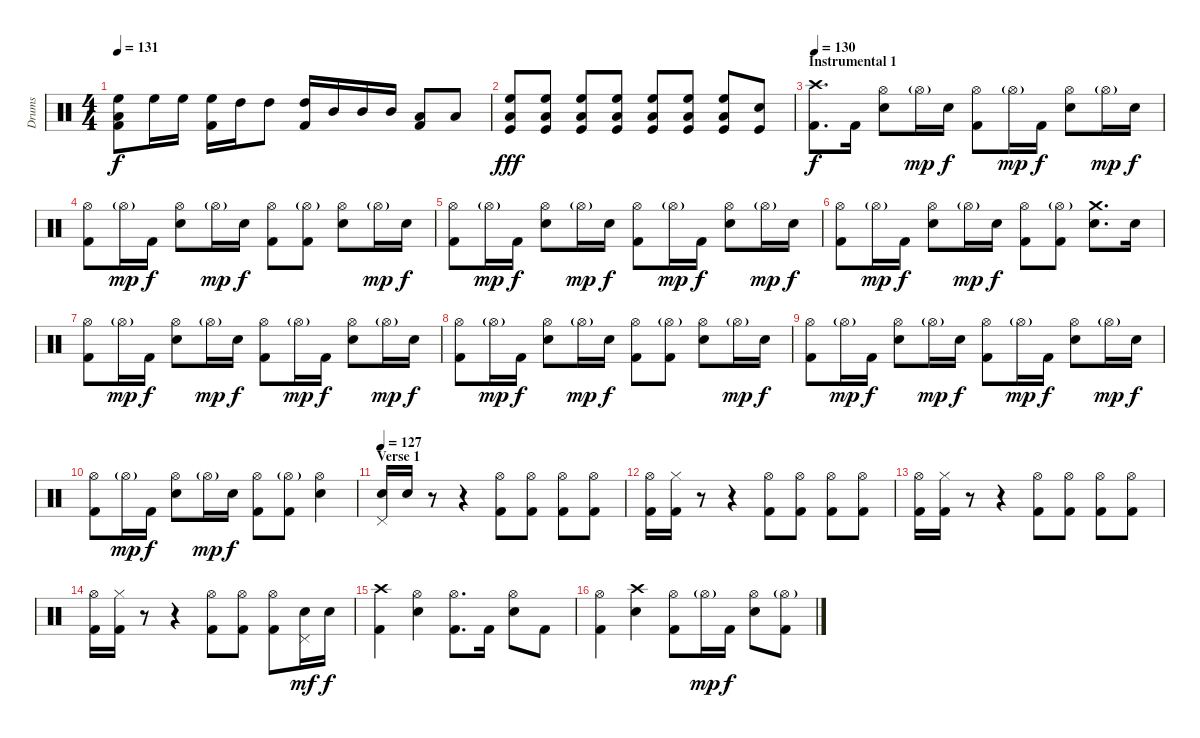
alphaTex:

\track ("Drums" "Drums") {instrument percussion}
\staff {score}
\articulation defaults
\ts (4 4)
\tempo 131
\clef neutral
\ks c
("High Floor Tom (hit)" "Low Tom (hit)" "Kick (hit) 2").8{dy f} "High Floor Tom (hit)".16 "High Floor Tom (hit)".16 ("High Floor Tom (hit)" "Kick (hit) 2").16 "High Tom (hit)".16 "High Tom (hit)".8 ("High Tom (hit)" "Kick (hit) 2").16 "Mid Tom (hit)".16 "Mid Tom (hit)".16 "Mid Tom (hit)".16 ("Low Tom (hit)" "Kick (hit) 2").8 "Low Tom (hit)".8 |
("High Floor Tom (hit)" "Low Tom (hit)" "Kick (hit)").8{dy fff} ("High Floor Tom (hit)" "Low Tom (hit)" "Kick (hit)").8 ("High Floor Tom (hit)" "Low Tom (hit)" "Kick (hit)").8 ("High Floor Tom (hit)" "Low Tom (hit)" "Kick (hit)").8 ("High Floor Tom (hit)" "Low Tom (hit)" "Kick (hit)").8 ("High Floor Tom (hit)" "Low Tom (hit)" "Kick (hit)").8 ("High Floor Tom (hit)" "Low Tom (hit)" "Kick (hit)").8 ("Snare (hit) 2" "Kick (hit)").8 |
\section ("" "Instrumental 1")
\tempo 130
("Crash high (hit)" "Kick (hit) 2").8{d dy f} "Kick (hit) 2".16 ("Hi-Hat (open)" "Snare (hit) 2").8 "Hi-Hat (open)"{g}.16{dy mp} "Snare (hit) 2".16{dy f} ("Hi-Hat (open)" "Kick (hit) 2").8 "Hi-Hat (open)"{g}.16{dy mp} "Kick (hit) 2".16{dy f} ("Hi-Hat (open)" "Snare (hit) 2").8 "Hi-Hat (open)"{g}.16{dy mp} "Snare (hit) 2".16{dy f} |
("Hi-Hat (open)" "Kick (hit) 2").8 "Hi-Hat (open)"{g}.16{dy mp} "Kick (hit) 2".16{dy f} ("Hi-Hat (open)" "Snare (hit) 2").8 "Hi-Hat (open)"{g}.16{dy mp} "Snare (hit) 2".16{dy f} ("Hi-Hat (open)" "Kick (hit) 2").8 ("Hi-Hat (open)"{g} "Kick (hit) 2").8 ("Hi-Hat (open)" "Snare (hit) 2").8 "Hi-Hat (open)"{g}.16{dy mp} "Snare (hit) 2".16{dy f} |
("Hi-Hat (open)" "Kick (hit) 2").8 "Hi-Hat (open)"{g}.16{dy mp} "Kick (hit) 2".16{dy f} ("Hi-Hat (open)" "Snare (hit) 2").8 "Hi-Hat (open)"{g}.16{dy mp} "Snare (hit) 2".16{dy f} ("Hi-Hat (open)" "Kick (hit) 2").8 "Hi-Hat (open)"{g}.16{dy mp} "Kick (hit) 2".16{dy f} ("Hi-Hat (open)" "Snare (hit) 2").8 "Hi-Hat (open)"{g}.16{dy mp} "Snare (hit) 2".16{dy f} |
("Hi-Hat (open)" "Kick (hit) 2").8 "Hi-Hat (open)"{g}.16{dy mp} "Kick (hit) 2".16{dy f} ("Hi-Hat (open)" "Snare (hit) 2").8 "Hi-Hat (open)"{g}.16{dy mp} "Snare (hit) 2".16{dy f} ("Hi-Hat (open)" "Kick (hit) 2").8 ("Hi-Hat (open)"{g} "Kick (hit) 2").8 ("Crash medium (hit)" "Snare (hit) 2").8{d} "Snare (hit) 2".16 |
("Hi-Hat (open)" "Kick (hit) 2").8 "Hi-Hat (open)"{g}.16{dy mp} "Kick (hit) 2".16{dy f} ("Hi-Hat (open)" "Snare (hit) 2").8 "Hi-Hat (open)"{g}.16{dy mp} "Snare (hit) 2".16{dy f} ("Hi-Hat (open)" "Kick (hit) 2").8 "Hi-Hat (open)"{g}.16{dy mp} "Kick (hit) 2".16{dy f} ("Hi-Hat (open)" "Snare (hit) 2").8 "Hi-Hat (open)"{g}.16{dy mp} "Snare (hit) 2".16{dy f} |
("Hi-Hat (open)" "Kick (hit) 2").8 "Hi-Hat (open)"{g}.16{dy mp} "Kick (hit) 2".16{dy f} ("Hi-Hat (open)" "Snare (hit) 2").8 "Hi-Hat (open)"{g}.16{dy mp} "Snare (hit) 2".16{dy f} ("Hi-Hat (open)" "Kick (hit) 2").8 ("Hi-Hat (open)"{g} "Kick (hit) 2").8 ("Hi-Hat (open)" "Snare (hit) 2").8 "Hi-Hat (open)"{g}.16{dy mp} "Snare (hit) 2".16{dy f} |
("Hi-Hat (open)" "Kick (hit) 2").8 "Hi-Hat (open)"{g}.16{dy mp} "Kick (hit) 2".16{dy f} ("Hi-Hat (open)" "Snare (hit) 2").8 "Hi-Hat (open)"{g}.16{dy mp} "Snare (hit) 2".16{dy f} ("Hi-Hat (open)" "Kick (hit) 2").8 "Hi-Hat (open)"{g}.16{dy mp} "Kick (hit) 2".16{dy f} ("Hi-Hat (open)" "Snare (hit) 2").8 "Hi-Hat (open)"{g}.16{dy mp} "Snare (hit) 2".16{dy f} |
("Hi-Hat (open)" "Kick (hit) 2").8 "Hi-Hat (open)"{g}.16{dy mp} "Kick (hit) 2".16{dy f} ("Hi-Hat (open)" "Snare (hit) 2").8 "Hi-Hat (open)"{g}.16{dy mp} "Snare (hit) 2".16{dy f} ("Hi-Hat (open)" "Kick (hit) 2").8 ("Hi-Hat (open)"{g} "Kick (hit) 2").8 ("Hi-Hat (open)" "Snare (hit) 2").4 |
\section ("" "Verse 1")
\tempo 127
("Snare (hit) 2" "Pedal Hi-Hat (hit)").16 "Snare (hit) 2".16 r.8 r.4 ("Hi-Hat (open)" "Kick (hit) 2").8 ("Hi-Hat (open)" "Kick (hit) 2").8 ("Hi-Hat (open)" "Kick (hit) 2").8 ("Hi-Hat (open)" "Kick (hit) 2").8 |
("Hi-Hat (open)" "Kick (hit) 2").16 ("Hi-Hat (closed)" "Kick (hit) 2").16 r.8 r.4 ("Hi-Hat (open)" "Kick (hit) 2").8 ("Hi-Hat (open)" "Kick (hit) 2").8 ("Hi-Hat (open)" "Kick (hit) 2").8 ("Hi-Hat (open)" "Kick (hit) 2").8 |
("Hi-Hat (open)" "Kick (hit) 2").16 ("Hi-Hat (closed)" "Kick (hit) 2").16 r.8 r.4 ("Hi-Hat (open)" "Kick (hit) 2").8 ("Hi-Hat (open)" "Kick (hit) 2").8 ("Hi-Hat (open)" "Kick (hit) 2").8 ("Hi-Hat (open)" "Kick (hit) 2").8 |
("Hi-Hat (open)" "Kick (hit) 2").16 ("Hi-Hat (closed)" "Kick (hit) 2").16 r.8 r.4 ("Hi-Hat (open)" "Kick (hit) 2").8 ("Hi-Hat (open)" "Kick (hit) 2").8 ("Hi-Hat (open)" "Kick (hit) 2").8 ("Snare (hit) 2" "Pedal Hi-Hat (hit)").16{dy mf} "Snare (hit) 2".16{dy f} |
("Crash high (hit)" "Kick (hit) 2").4 ("Hi-Hat (open)" "Snare (hit) 2").4 ("Hi-Hat (open)" "Kick (hit) 2").8{d} "Kick (hit) 2".16 ("Hi-Hat (open)" "Snare (hit) 2").8 "Kick (hit) 2".8 |
("Hi-Hat (open)" "Kick (hit) 2").4 ("Crash high (hit)" "Snare (hit) 2").4 ("Hi-Hat (open)" "Kick (hit) 2").8 "Hi-Hat (open)"{g}.16{dy mp} "Kick (hit) 2".16{dy f} ("Hi-Hat (open)" "Snare (hit) 2").8 ("Hi-Hat (open)"{g} "Kick (hit) 2").8
